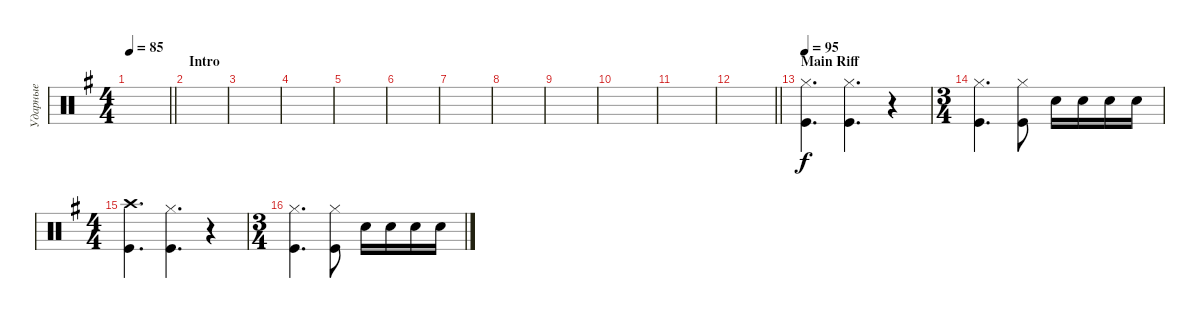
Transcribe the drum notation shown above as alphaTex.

\track ("Ударные" "Ударные") {instrument percussion}
\staff {score}
\articulation defaults
\ts (4 4)
\tempo 85
\clef neutral
\barLineRight lightlight
\ks eminor
|
\section ("" "Intro")
|
|
|
|
|
|
|
|
|
|
\barLineRight lightlight
|
\section ("" "Main Riff")
\tempo 95
("Kick (hit)" "Hi-Hat (closed)").4{d} ("Kick (hit)" "Hi-Hat (closed)").4{d} r.4 |
\ts (3 4)
("Kick (hit)" "Hi-Hat (closed)").4{d} ("Kick (hit)" "Hi-Hat (closed)").8 "Snare (hit) 2".16 "Snare (hit) 2".16 "Snare (hit) 2".16 "Snare (hit) 2".16 |
\ts (4 4)
("Kick (hit)" "Crash high (hit)").4{d} ("Kick (hit)" "Hi-Hat (closed)").4{d} r.4 |
\ts (3 4)
("Kick (hit)" "Hi-Hat (closed)").4{d} ("Kick (hit)" "Hi-Hat (closed)").8 "Snare (hit) 2".16 "Snare (hit) 2".16 "Snare (hit) 2".16 "Snare (hit) 2".16
